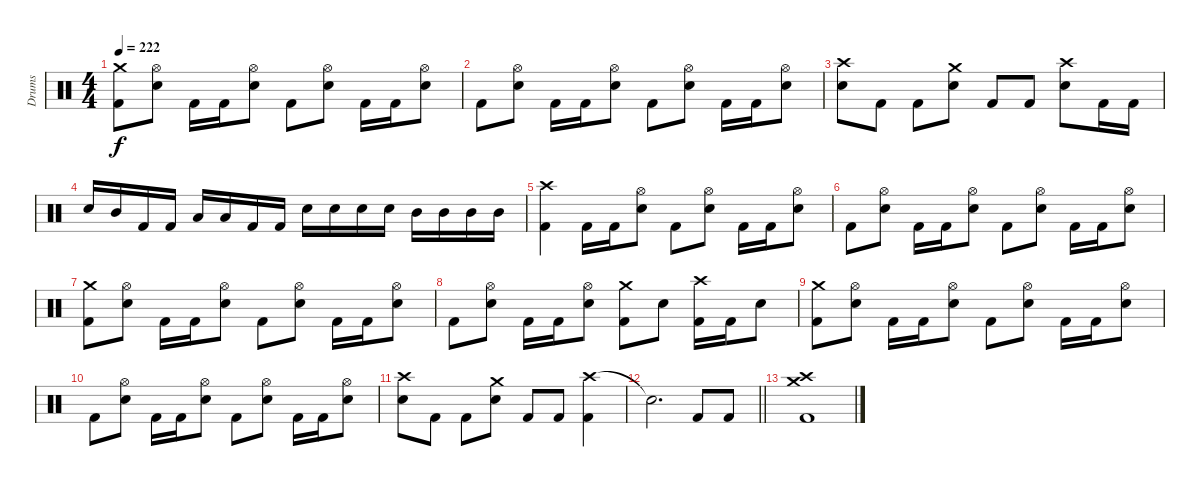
\track ("Drums" "Drums") {instrument percussion}
\staff {score}
\articulation defaults
\ts (4 4)
\tempo 222
\clef neutral
\ks c
("Crash medium (hit)" "Kick (hit) 2").8{dy f} ("Hi-Hat (open)" "Electric Snare (hit)").8 "Kick (hit) 2".16 "Kick (hit) 2".16 ("Hi-Hat (open)" "Electric Snare (hit)").8 "Kick (hit) 2".8 ("Hi-Hat (open)" "Electric Snare (hit)").8 "Kick (hit) 2".16 "Kick (hit) 2".16 ("Hi-Hat (open)" "Electric Snare (hit)").8 |
"Kick (hit) 2".8 ("Hi-Hat (open)" "Electric Snare (hit)").8 "Kick (hit) 2".16 "Kick (hit) 2".16 ("Hi-Hat (open)" "Electric Snare (hit)").8 "Kick (hit) 2".8 ("Hi-Hat (open)" "Electric Snare (hit)").8 "Kick (hit) 2".16 "Kick (hit) 2".16 ("Hi-Hat (open)" "Electric Snare (hit)").8 |
("Crash high (hit)" "Electric Snare (hit)").8 "Kick (hit) 2".8 "Kick (hit) 2".8 ("Crash medium (hit)" "Electric Snare (hit)").8 "Kick (hit) 2".8 "Kick (hit) 2".8 ("Crash high (hit)" "Electric Snare (hit)").8 "Kick (hit) 2".16 "Kick (hit) 2".16 |
"Electric Snare (hit)".16 "Mid Tom (hit)".16 "Kick (hit) 2".16 "Kick (hit) 2".16 "Low Tom (hit)".16 "Low Tom (hit)".16 "Kick (hit) 2".16 "Kick (hit) 2".16 "Electric Snare (hit)".16 "Electric Snare (hit)".16 "Electric Snare (hit)".16 "Electric Snare (hit)".16 "Mid Tom (hit)".16 "Mid Tom (hit)".16 "Mid Tom (hit)".16 "Mid Tom (hit)".16 |
("Crash high (hit)" "Kick (hit) 2").4 "Kick (hit) 2".16 "Kick (hit) 2".16 ("Hi-Hat (open)" "Electric Snare (hit)").8 "Kick (hit) 2".8 ("Hi-Hat (open)" "Electric Snare (hit)").8 "Kick (hit) 2".16 "Kick (hit) 2".16 ("Hi-Hat (open)" "Electric Snare (hit)").8 |
"Kick (hit) 2".8 ("Hi-Hat (open)" "Electric Snare (hit)").8 "Kick (hit) 2".16 "Kick (hit) 2".16 ("Hi-Hat (open)" "Electric Snare (hit)").8 "Kick (hit) 2".8 ("Hi-Hat (open)" "Electric Snare (hit)").8 "Kick (hit) 2".16 "Kick (hit) 2".16 ("Hi-Hat (open)" "Electric Snare (hit)").8 |
("Crash medium (hit)" "Kick (hit) 2").8 ("Hi-Hat (open)" "Electric Snare (hit)").8 "Kick (hit) 2".16 "Kick (hit) 2".16 ("Hi-Hat (open)" "Electric Snare (hit)").8 "Kick (hit) 2".8 ("Hi-Hat (open)" "Electric Snare (hit)").8 "Kick (hit) 2".16 "Kick (hit) 2".16 ("Hi-Hat (open)" "Electric Snare (hit)").8 |
"Kick (hit) 2".8 ("Hi-Hat (open)" "Electric Snare (hit)").8 "Kick (hit) 2".16 "Kick (hit) 2".16 ("Hi-Hat (open)" "Electric Snare (hit)").8 ("Crash medium (hit)" "Kick (hit) 2").8 "Electric Snare (hit)".8 ("Crash high (hit)" "Kick (hit) 2").16 "Kick (hit) 2".16 "Electric Snare (hit)".8 |
("Crash medium (hit)" "Kick (hit) 2").8 ("Hi-Hat (open)" "Electric Snare (hit)").8 "Kick (hit) 2".16 "Kick (hit) 2".16 ("Hi-Hat (open)" "Electric Snare (hit)").8 "Kick (hit) 2".8 ("Hi-Hat (open)" "Electric Snare (hit)").8 "Kick (hit) 2".16 "Kick (hit) 2".16 ("Hi-Hat (open)" "Electric Snare (hit)").8 |
"Kick (hit) 2".8 ("Hi-Hat (open)" "Electric Snare (hit)").8 "Kick (hit) 2".16 "Kick (hit) 2".16 ("Hi-Hat (open)" "Electric Snare (hit)").8 "Kick (hit) 2".8 ("Hi-Hat (open)" "Electric Snare (hit)").8 "Kick (hit) 2".16 "Kick (hit) 2".16 ("Hi-Hat (open)" "Electric Snare (hit)").8 |
("Crash high (hit)" "Electric Snare (hit)").8 "Kick (hit) 2".8 "Kick (hit) 2".8 ("Crash medium (hit)" "Electric Snare (hit)").8 "Kick (hit) 2".8 "Kick (hit) 2".8 ("Crash high (hit)" "Kick (hit) 2").4 |
\barLineRight lightlight "Snare (hit)"{t}.2{d} "Kick (hit) 2".8 "Kick (hit) 2".8
|
("Crash high (hit)" "Crash medium (hit)" "Kick (hit) 2").1
